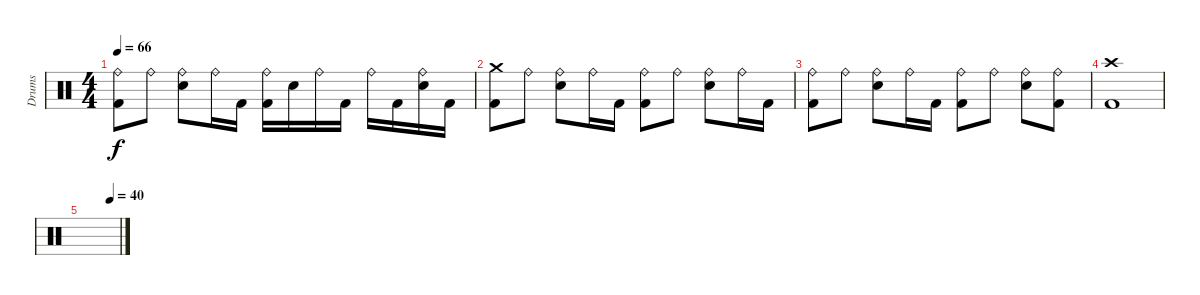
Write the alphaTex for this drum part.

\track ("Drums" "Drums") {instrument percussion}
\staff {score}
\articulation defaults
\ts (4 4)
\tempo 66
\clef neutral
\ks c
("Ride (bell)" "Kick (hit) 2").8{dy f} "Ride (bell)".8 ("Ride (bell)" "Snare (hit) 2").8 "Ride (bell)".16 "Kick (hit) 2".16 ("Ride (bell)" "Kick (hit) 2").16 "Snare (hit) 2".16 "Ride (bell)".16 "Kick (hit) 2".16 "Ride (bell)".16 "Kick (hit) 2".16 ("Ride (bell)" "Snare (hit) 2").16 "Kick (hit) 2".16 |
("Crash medium (hit)" "Kick (hit) 2").8 "Ride (bell)".8 ("Ride (bell)" "Snare (hit) 2").8 "Ride (bell)".16 "Kick (hit) 2".16 ("Ride (bell)" "Kick (hit) 2").8 "Ride (bell)".8 ("Ride (bell)" "Snare (hit) 2").8 "Ride (bell)".16 "Kick (hit) 2".16 |
("Ride (bell)" "Kick (hit) 2").8 "Ride (bell)".8 ("Ride (bell)" "Snare (hit) 2").8 "Ride (bell)".16 "Kick (hit) 2".16 ("Ride (bell)" "Kick (hit) 2").8 "Ride (bell)".8 ("Ride (bell)" "Snare (hit) 2").8 ("Ride (bell)" "Kick (hit) 2").8 |
("Crash high (hit)" "Kick (hit) 2").1 |
\tempo (40 0.75)
